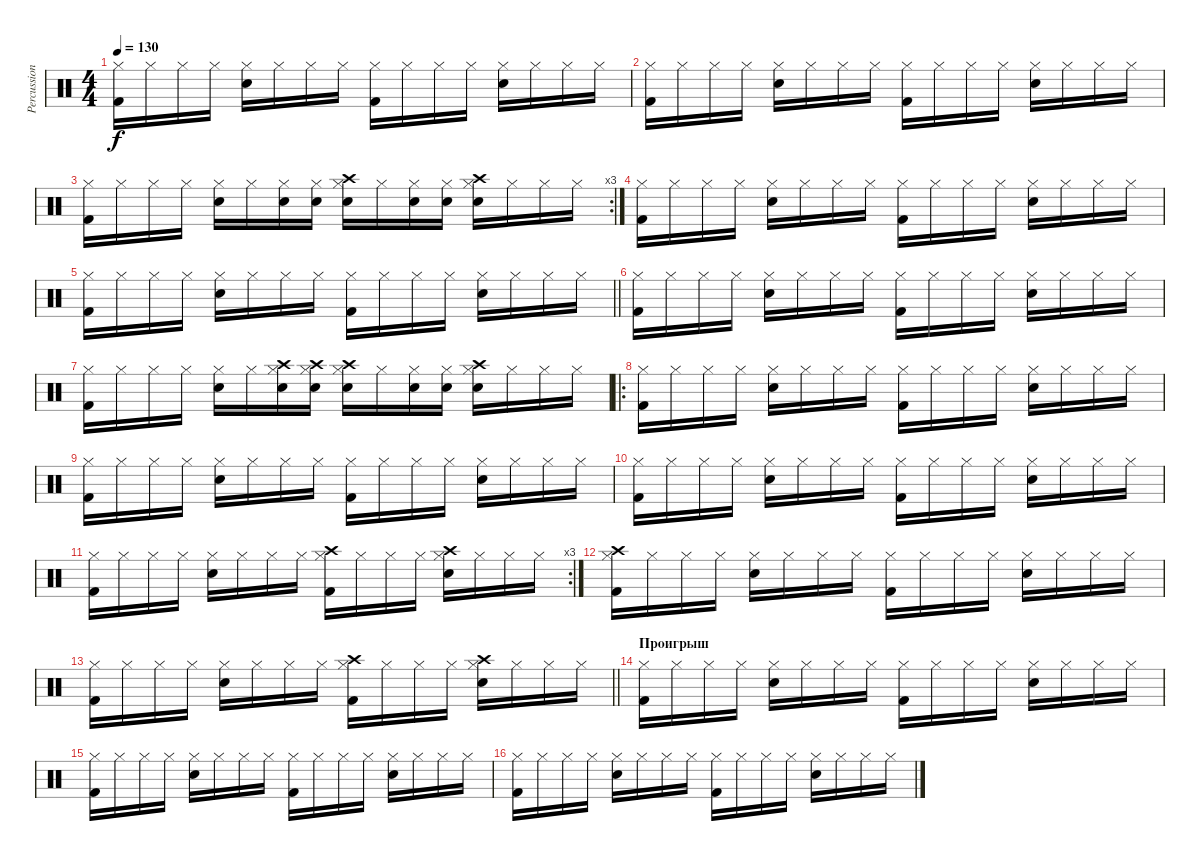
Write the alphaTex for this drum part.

\track ("Percussion" "Percussion") {instrument percussion}
\staff {score}
\articulation defaults
\ts (4 4)
\tempo 130
\clef neutral
\ks c
("Kick (hit) 2" "Hi-Hat (closed)").16{dy f} "Hi-Hat (closed)".16 "Hi-Hat (closed)".16 "Hi-Hat (closed)".16 ("Snare (hit) 2" "Hi-Hat (closed)").16 "Hi-Hat (closed)".16 "Hi-Hat (closed)".16 "Hi-Hat (closed)".16 ("Hi-Hat (closed)" "Kick (hit) 2").16 "Hi-Hat (closed)".16 "Hi-Hat (closed)".16 "Hi-Hat (closed)".16 ("Snare (hit) 2" "Hi-Hat (closed)").16 "Hi-Hat (closed)".16 "Hi-Hat (closed)".16 "Hi-Hat (closed)".16 |
("Hi-Hat (closed)" "Kick (hit) 2").16 "Hi-Hat (closed)".16 "Hi-Hat (closed)".16 "Hi-Hat (closed)".16 ("Snare (hit) 2" "Hi-Hat (closed)").16 "Hi-Hat (closed)".16 "Hi-Hat (closed)".16 "Hi-Hat (closed)".16 ("Kick (hit) 2" "Hi-Hat (closed)").16 "Hi-Hat (closed)".16 "Hi-Hat (closed)".16 "Hi-Hat (closed)".16 ("Hi-Hat (closed)" "Snare (hit) 2").16 "Hi-Hat (closed)".16 "Hi-Hat (closed)".16 "Hi-Hat (closed)".16 |
\rc 3
("Kick (hit) 2" "Hi-Hat (closed)").16 "Hi-Hat (closed)".16 "Hi-Hat (closed)".16 "Hi-Hat (closed)".16 ("Hi-Hat (closed)" "Snare (hit) 2").16 "Hi-Hat (closed)".16 ("Hi-Hat (closed)" "Snare (hit) 2").16 ("Hi-Hat (closed)" "Snare (hit) 2").16 ("Crash high (hit)" "Hi-Hat (closed)" "Snare (hit) 2").16 "Hi-Hat (closed)".16 ("Snare (hit) 2" "Hi-Hat (closed)").16 ("Snare (hit) 2" "Hi-Hat (closed)").16 ("Crash high (hit)" "Snare (hit) 2" "Hi-Hat (closed)").16 "Hi-Hat (closed)".16 "Hi-Hat (closed)".16 "Hi-Hat (closed)".16 |
("Hi-Hat (closed)" "Kick (hit) 2").16 "Hi-Hat (closed)".16 "Hi-Hat (closed)".16 "Hi-Hat (closed)".16 ("Snare (hit) 2" "Hi-Hat (closed)").16 "Hi-Hat (closed)".16 "Hi-Hat (closed)".16 "Hi-Hat (closed)".16 ("Hi-Hat (closed)" "Kick (hit) 2").16 "Hi-Hat (closed)".16 "Hi-Hat (closed)".16 "Hi-Hat (closed)".16 ("Snare (hit) 2" "Hi-Hat (closed)").16 "Hi-Hat (closed)".16 "Hi-Hat (closed)".16 "Hi-Hat (closed)".16 |
\barLineRight lightlight
("Kick (hit) 2" "Hi-Hat (closed)").16 "Hi-Hat (closed)".16 "Hi-Hat (closed)".16 "Hi-Hat (closed)".16 ("Hi-Hat (closed)" "Snare (hit) 2").16 "Hi-Hat (closed)".16 "Hi-Hat (closed)".16 "Hi-Hat (closed)".16 ("Kick (hit) 2" "Hi-Hat (closed)").16 "Hi-Hat (closed)".16 "Hi-Hat (closed)".16 "Hi-Hat (closed)".16 ("Hi-Hat (closed)" "Snare (hit) 2").16 "Hi-Hat (closed)".16 "Hi-Hat (closed)".16 "Hi-Hat (closed)".16 |
("Kick (hit) 2" "Hi-Hat (closed)").16 "Hi-Hat (closed)".16 "Hi-Hat (closed)".16 "Hi-Hat (closed)".16 ("Hi-Hat (closed)" "Snare (hit) 2").16 "Hi-Hat (closed)".16 "Hi-Hat (closed)".16 "Hi-Hat (closed)".16 ("Kick (hit) 2" "Hi-Hat (closed)").16 "Hi-Hat (closed)".16 "Hi-Hat (closed)".16 "Hi-Hat (closed)".16 ("Snare (hit) 2" "Hi-Hat (closed)").16 "Hi-Hat (closed)".16 "Hi-Hat (closed)".16 "Hi-Hat (closed)".16 |
("Kick (hit) 2" "Hi-Hat (closed)").16 "Hi-Hat (closed)".16 "Hi-Hat (closed)".16 "Hi-Hat (closed)".16 ("Hi-Hat (closed)" "Snare (hit) 2").16 "Hi-Hat (closed)".16 ("Snare (hit) 2" "Crash high (hit)" "Hi-Hat (closed)").16 ("Snare (hit) 2" "Crash high (hit)" "Hi-Hat (closed)").16 ("Hi-Hat (closed)" "Snare (hit) 2" "Crash high (hit)").16 "Hi-Hat (closed)".16 ("Hi-Hat (closed)" "Snare (hit) 2").16 ("Snare (hit) 2" "Hi-Hat (closed)").16 ("Snare (hit) 2" "Hi-Hat (closed)" "Crash high (hit)").16 "Hi-Hat (closed)".16 "Hi-Hat (closed)".16 "Hi-Hat (closed)".16 |
\ro
("Kick (hit) 2" "Hi-Hat (closed)").16 "Hi-Hat (closed)".16 "Hi-Hat (closed)".16 "Hi-Hat (closed)".16 ("Snare (hit) 2" "Hi-Hat (closed)").16 "Hi-Hat (closed)".16 "Hi-Hat (closed)".16 "Hi-Hat (closed)".16 ("Hi-Hat (closed)" "Kick (hit) 2").16 "Hi-Hat (closed)".16 "Hi-Hat (closed)".16 "Hi-Hat (closed)".16 ("Snare (hit) 2" "Hi-Hat (closed)").16 "Hi-Hat (closed)".16 "Hi-Hat (closed)".16 "Hi-Hat (closed)".16 |
("Kick (hit) 2" "Hi-Hat (closed)").16 "Hi-Hat (closed)".16 "Hi-Hat (closed)".16 "Hi-Hat (closed)".16 ("Snare (hit) 2" "Hi-Hat (closed)").16 "Hi-Hat (closed)".16 "Hi-Hat (closed)".16 "Hi-Hat (closed)".16 ("Kick (hit) 2" "Hi-Hat (closed)").16 "Hi-Hat (closed)".16 "Hi-Hat (closed)".16 "Hi-Hat (closed)".16 ("Hi-Hat (closed)" "Snare (hit) 2").16 "Hi-Hat (closed)".16 "Hi-Hat (closed)".16 "Hi-Hat (closed)".16 |
("Kick (hit) 2" "Hi-Hat (closed)").16 "Hi-Hat (closed)".16 "Hi-Hat (closed)".16 "Hi-Hat (closed)".16 ("Snare (hit) 2" "Hi-Hat (closed)").16 "Hi-Hat (closed)".16 "Hi-Hat (closed)".16 "Hi-Hat (closed)".16 ("Hi-Hat (closed)" "Kick (hit) 2").16 "Hi-Hat (closed)".16 "Hi-Hat (closed)".16 "Hi-Hat (closed)".16 ("Snare (hit) 2" "Hi-Hat (closed)").16 "Hi-Hat (closed)".16 "Hi-Hat (closed)".16 "Hi-Hat (closed)".16 |
\rc 3
("Kick (hit) 2" "Hi-Hat (closed)").16 "Hi-Hat (closed)".16 "Hi-Hat (closed)".16 "Hi-Hat (closed)".16 ("Hi-Hat (closed)" "Snare (hit) 2").16 "Hi-Hat (closed)".16 "Hi-Hat (closed)".16 "Hi-Hat (closed)".16 ("Kick (hit) 2" "Crash high (hit)" "Hi-Hat (closed)").16 "Hi-Hat (closed)".16 "Hi-Hat (closed)".16 "Hi-Hat (closed)".16 ("Snare (hit) 2" "Hi-Hat (closed)" "Crash high (hit)").16 "Hi-Hat (closed)".16 "Hi-Hat (closed)".16 "Hi-Hat (closed)".16 |
("Kick (hit) 2" "Hi-Hat (closed)" "Crash high (hit)").16 "Hi-Hat (closed)".16 "Hi-Hat (closed)".16 "Hi-Hat (closed)".16 ("Snare (hit) 2" "Hi-Hat (closed)").16 "Hi-Hat (closed)".16 "Hi-Hat (closed)".16 "Hi-Hat (closed)".16 ("Hi-Hat (closed)" "Kick (hit) 2").16 "Hi-Hat (closed)".16 "Hi-Hat (closed)".16 "Hi-Hat (closed)".16 ("Snare (hit) 2" "Hi-Hat (closed)").16 "Hi-Hat (closed)".16 "Hi-Hat (closed)".16 "Hi-Hat (closed)".16 |
\barLineRight lightlight
("Kick (hit) 2" "Hi-Hat (closed)").16 "Hi-Hat (closed)".16 "Hi-Hat (closed)".16 "Hi-Hat (closed)".16 ("Hi-Hat (closed)" "Snare (hit) 2").16 "Hi-Hat (closed)".16 "Hi-Hat (closed)".16 "Hi-Hat (closed)".16 ("Kick (hit) 2" "Crash high (hit)" "Hi-Hat (closed)").16 "Hi-Hat (closed)".16 "Hi-Hat (closed)".16 "Hi-Hat (closed)".16 ("Snare (hit) 2" "Hi-Hat (closed)" "Crash high (hit)").16 "Hi-Hat (closed)".16 "Hi-Hat (closed)".16 "Hi-Hat (closed)".16 |
\section ("" "Проигрыш")
("Kick (hit) 2" "Hi-Hat (closed)").16 "Hi-Hat (closed)".16 "Hi-Hat (closed)".16 "Hi-Hat (closed)".16 ("Hi-Hat (closed)" "Snare (hit) 2").16 "Hi-Hat (closed)".16 "Hi-Hat (closed)".16 "Hi-Hat (closed)".16 ("Kick (hit) 2" "Hi-Hat (closed)").16 "Hi-Hat (closed)".16 "Hi-Hat (closed)".16 "Hi-Hat (closed)".16 ("Snare (hit) 2" "Hi-Hat (closed)").16 "Hi-Hat (closed)".16 "Hi-Hat (closed)".16 "Hi-Hat (closed)".16 |
("Kick (hit) 2" "Hi-Hat (closed)").16 "Hi-Hat (closed)".16 "Hi-Hat (closed)".16 "Hi-Hat (closed)".16 ("Hi-Hat (closed)" "Snare (hit) 2").16 "Hi-Hat (closed)".16 "Hi-Hat (closed)".16 "Hi-Hat (closed)".16 ("Kick (hit) 2" "Hi-Hat (closed)").16 "Hi-Hat (closed)".16 "Hi-Hat (closed)".16 "Hi-Hat (closed)".16 ("Hi-Hat (closed)" "Snare (hit) 2").16 "Hi-Hat (closed)".16 "Hi-Hat (closed)".16 "Hi-Hat (closed)".16 |
("Kick (hit) 2" "Hi-Hat (closed)").16 "Hi-Hat (closed)".16 "Hi-Hat (closed)".16 "Hi-Hat (closed)".16 ("Snare (hit) 2" "Hi-Hat (closed)").16 "Hi-Hat (closed)".16 "Hi-Hat (closed)".16 "Hi-Hat (closed)".16 ("Kick (hit) 2" "Hi-Hat (closed)").16 "Hi-Hat (closed)".16 "Hi-Hat (closed)".16 "Hi-Hat (closed)".16 ("Hi-Hat (closed)" "Snare (hit) 2").16 "Hi-Hat (closed)".16 "Hi-Hat (closed)".16 "Hi-Hat (closed)".16
